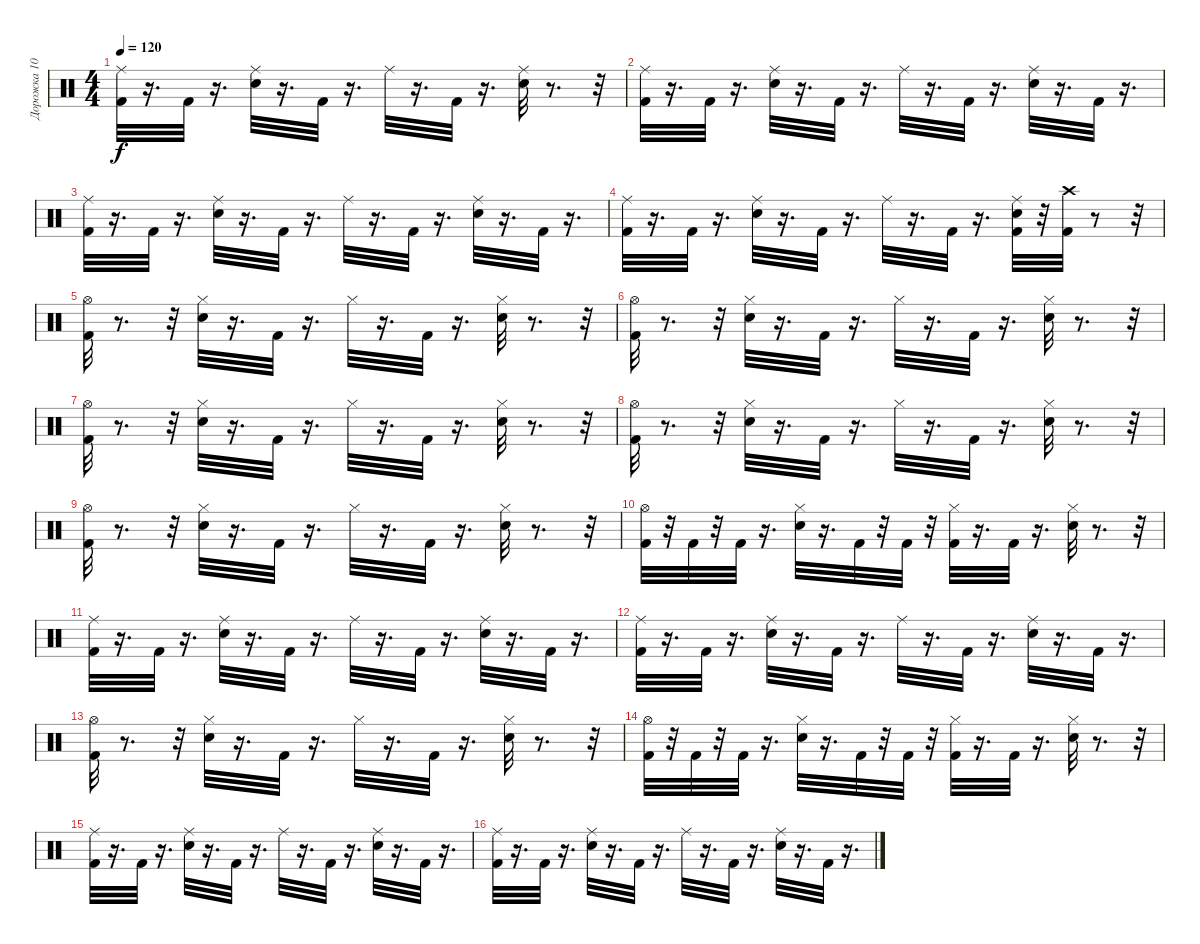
\track ("Дорожка 10" "Дорожка 10") {instrument percussion}
\staff {score}
\articulation defaults
\ts (4 4)
\tempo 120
\clef neutral
\ks c
("Kick (hit) 2" "Ride (middle)").32{dy f} r.16{d} "Kick (hit) 2".32 r.16{d} ("Snare (hit) 2" "Ride (middle)").32 r.16{d} "Kick (hit) 2".32 r.16{d} "Ride (middle)".32 r.16{d} "Kick (hit) 2".32 r.16{d} ("Snare (hit) 2" "Ride (middle)").32 r.8{d} r.32 |
("Ride (middle)" "Kick (hit) 2").32 r.16{d} "Kick (hit) 2".32 r.16{d} ("Snare (hit) 2" "Ride (middle)").32 r.16{d} "Kick (hit) 2".32 r.16{d} "Ride (middle)".32 r.16{d} "Kick (hit) 2".32 r.16{d} ("Snare (hit) 2" "Ride (middle)").32 r.16{d} "Kick (hit) 2".32 r.16{d} |
("Kick (hit) 2" "Ride (middle)").32 r.16{d} "Kick (hit) 2".32 r.16{d} ("Snare (hit) 2" "Ride (middle)").32 r.16{d} "Kick (hit) 2".32 r.16{d} "Ride (middle)".32 r.16{d} "Kick (hit) 2".32 r.16{d} ("Ride (middle)" "Snare (hit) 2").32 r.16{d} "Kick (hit) 2".32 r.16{d} |
("Kick (hit) 2" "Ride (middle)").32 r.16{d} "Kick (hit) 2".32 r.16{d} ("Ride (middle)" "Snare (hit) 2").32 r.16{d} "Kick (hit) 2".32 r.16{d} "Ride (middle)".32 r.16{d} "Kick (hit) 2".32 r.16{d} ("Kick (hit) 2" "Ride (middle)" "Snare (hit) 2").32 r.32 ("Crash high (hit)" "Kick (hit) 2").32 r.8 r.32 |
("Hi-Hat (open)" "Kick (hit) 2").32 r.8{d} r.32 ("Hi-Hat (closed)" "Snare (hit) 2").32 r.16{d} "Kick (hit) 2".32 r.16{d} "Hi-Hat (closed)".32 r.16{d} "Kick (hit) 2".32 r.16{d} ("Hi-Hat (closed)" "Snare (hit) 2").32 r.8{d} r.32 |
("Hi-Hat (open)" "Kick (hit) 2").32 r.8{d} r.32 ("Hi-Hat (closed)" "Snare (hit) 2").32 r.16{d} "Kick (hit) 2".32 r.16{d} "Hi-Hat (closed)".32 r.16{d} "Kick (hit) 2".32 r.16{d} ("Hi-Hat (closed)" "Snare (hit) 2").32 r.8{d} r.32 |
("Kick (hit) 2" "Hi-Hat (open)").32 r.8{d} r.32 ("Snare (hit) 2" "Hi-Hat (closed)").32 r.16{d} "Kick (hit) 2".32 r.16{d} "Hi-Hat (closed)".32 r.16{d} "Kick (hit) 2".32 r.16{d} ("Snare (hit) 2" "Hi-Hat (closed)").32 r.8{d} r.32 |
("Kick (hit) 2" "Hi-Hat (open)").32 r.8{d} r.32 ("Hi-Hat (closed)" "Snare (hit) 2").32 r.16{d} "Kick (hit) 2".32 r.16{d} "Hi-Hat (closed)".32 r.16{d} "Kick (hit) 2".32 r.16{d} ("Snare (hit) 2" "Hi-Hat (closed)").32 r.8{d} r.32 |
("Hi-Hat (open)" "Kick (hit) 2").32 r.8{d} r.32 ("Hi-Hat (closed)" "Snare (hit) 2").32 r.16{d} "Kick (hit) 2".32 r.16{d} "Hi-Hat (closed)".32 r.16{d} "Kick (hit) 2".32 r.16{d} ("Hi-Hat (closed)" "Snare (hit) 2").32 r.8{d} r.32 |
("Hi-Hat (open)" "Kick (hit) 2").32 r.32 "Kick (hit) 2".32 r.32 "Kick (hit) 2".32 r.16{d} ("Snare (hit) 2" "Hi-Hat (closed)").32 r.16{d} "Kick (hit) 2".32 r.32 "Kick (hit) 2".32 r.32 ("Kick (hit) 2" "Hi-Hat (closed)").32 r.16{d} "Kick (hit) 2".32 r.16{d} ("Hi-Hat (closed)" "Snare (hit) 2").32 r.8{d} r.32 |
("Ride (middle)" "Kick (hit) 2").32 r.16{d} "Kick (hit) 2".32 r.16{d} ("Snare (hit) 2" "Ride (middle)").32 r.16{d} "Kick (hit) 2".32 r.16{d} "Ride (middle)".32 r.16{d} "Kick (hit) 2".32 r.16{d} ("Snare (hit) 2" "Ride (middle)").32 r.16{d} "Kick (hit) 2".32 r.16{d} |
("Kick (hit) 2" "Ride (middle)").32 r.16{d} "Kick (hit) 2".32 r.16{d} ("Snare (hit) 2" "Ride (middle)").32 r.16{d} "Kick (hit) 2".32 r.16{d} "Ride (middle)".32 r.16{d} "Kick (hit) 2".32 r.16{d} ("Snare (hit) 2" "Ride (middle)").32 r.16{d} "Kick (hit) 2".32 r.16{d} |
("Hi-Hat (open)" "Kick (hit) 2").32 r.8{d} r.32 ("Hi-Hat (closed)" "Snare (hit) 2").32 r.16{d} "Kick (hit) 2".32 r.16{d} "Hi-Hat (closed)".32 r.16{d} "Kick (hit) 2".32 r.16{d} ("Hi-Hat (closed)" "Snare (hit) 2").32 r.8{d} r.32 |
("Hi-Hat (open)" "Kick (hit) 2").32 r.32 "Kick (hit) 2".32 r.32 "Kick (hit) 2".32 r.16{d} ("Snare (hit) 2" "Hi-Hat (closed)").32 r.16{d} "Kick (hit) 2".32 r.32 "Kick (hit) 2".32 r.32 ("Kick (hit) 2" "Hi-Hat (closed)").32 r.16{d} "Kick (hit) 2".32 r.16{d} ("Hi-Hat (closed)" "Snare (hit) 2").32 r.8{d} r.32 |
("Ride (middle)" "Kick (hit) 2").32 r.16{d} "Kick (hit) 2".32 r.16{d} ("Snare (hit) 2" "Ride (middle)").32 r.16{d} "Kick (hit) 2".32 r.16{d} "Ride (middle)".32 r.16{d} "Kick (hit) 2".32 r.16{d} ("Snare (hit) 2" "Ride (middle)").32 r.16{d} "Kick (hit) 2".32 r.16{d} |
("Kick (hit) 2" "Ride (middle)").32 r.16{d} "Kick (hit) 2".32 r.16{d} ("Snare (hit) 2" "Ride (middle)").32 r.16{d} "Kick (hit) 2".32 r.16{d} "Ride (middle)".32 r.16{d} "Kick (hit) 2".32 r.16{d} ("Snare (hit) 2" "Ride (middle)").32 r.16{d} "Kick (hit) 2".32 r.16{d}
